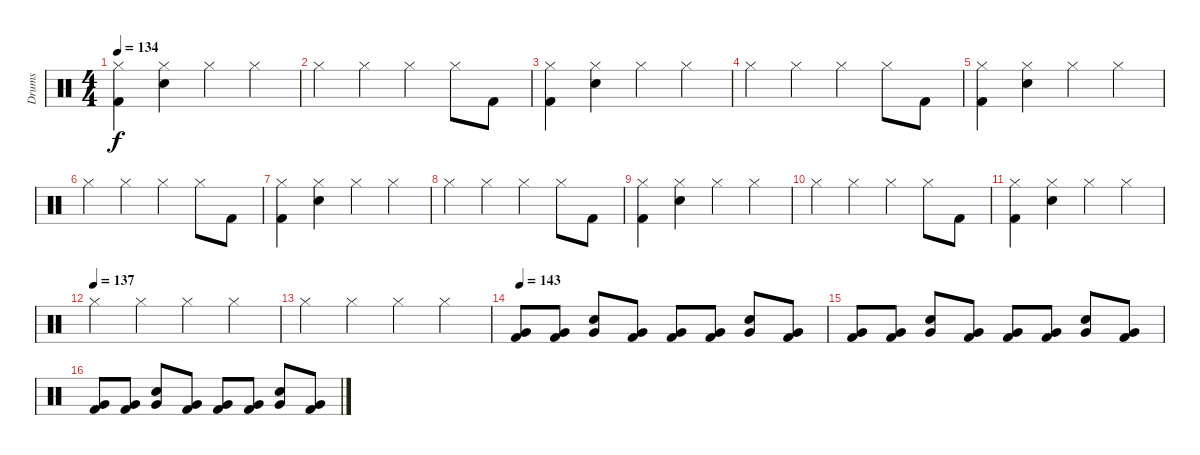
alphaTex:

\track ("Drums" "Drums") {instrument percussion}
\staff {score}
\articulation defaults
\ts (4 4)
\tempo 134
\clef neutral
\ks c
("Hi-Hat (closed)" "Kick (hit) 2").4{dy f} ("Hi-Hat (closed)" "Snare (hit) 2").4 "Hi-Hat (closed)".4 "Hi-Hat (closed)".4 |
"Hi-Hat (closed)".4 "Hi-Hat (closed)".4 "Hi-Hat (closed)".4 "Hi-Hat (closed)".8 "Kick (hit) 2".8 |
("Hi-Hat (closed)" "Kick (hit) 2").4 ("Hi-Hat (closed)" "Snare (hit) 2").4 "Hi-Hat (closed)".4 "Hi-Hat (closed)".4 |
"Hi-Hat (closed)".4 "Hi-Hat (closed)".4 "Hi-Hat (closed)".4 "Hi-Hat (closed)".8 "Kick (hit) 2".8 |
("Hi-Hat (closed)" "Kick (hit) 2").4 ("Hi-Hat (closed)" "Snare (hit) 2").4 "Hi-Hat (closed)".4 "Hi-Hat (closed)".4 |
"Hi-Hat (closed)".4 "Hi-Hat (closed)".4 "Hi-Hat (closed)".4 "Hi-Hat (closed)".8 "Kick (hit) 2".8 |
("Hi-Hat (closed)" "Kick (hit) 2").4 ("Hi-Hat (closed)" "Snare (hit) 2").4 "Hi-Hat (closed)".4 "Hi-Hat (closed)".4 |
"Hi-Hat (closed)".4 "Hi-Hat (closed)".4 "Hi-Hat (closed)".4 "Hi-Hat (closed)".8 "Kick (hit) 2".8 |
("Hi-Hat (closed)" "Kick (hit) 2").4 ("Hi-Hat (closed)" "Snare (hit) 2").4 "Hi-Hat (closed)".4 "Hi-Hat (closed)".4 |
"Hi-Hat (closed)".4 "Hi-Hat (closed)".4 "Hi-Hat (closed)".4 "Hi-Hat (closed)".8 "Kick (hit) 2".8 |
("Hi-Hat (closed)" "Kick (hit) 2").4 ("Hi-Hat (closed)" "Snare (hit) 2").4 "Hi-Hat (closed)".4 "Hi-Hat (closed)".4 |
\tempo (137)
"Hi-Hat (closed)".4 "Hi-Hat (closed)".4 "Hi-Hat (closed)".4 "Hi-Hat (closed)".4 |
"Hi-Hat (closed)".4 "Hi-Hat (closed)".4 "Hi-Hat (closed)".4 "Hi-Hat (closed)".4 |
\tempo 143
("Very Low Tom (hit)" "Kick (hit) 2").8 ("Very Low Tom (hit)" "Kick (hit) 2").8 ("Very Low Tom (hit)" "Snare (hit) 2").8 ("Very Low Tom (hit)" "Kick (hit) 2").8 ("Very Low Tom (hit)" "Kick (hit) 2").8 ("Very Low Tom (hit)" "Kick (hit) 2").8 ("Very Low Tom (hit)" "Snare (hit) 2").8 ("Very Low Tom (hit)" "Kick (hit) 2").8 |
("Very Low Tom (hit)" "Kick (hit) 2").8 ("Very Low Tom (hit)" "Kick (hit) 2").8 ("Very Low Tom (hit)" "Snare (hit) 2").8 ("Very Low Tom (hit)" "Kick (hit) 2").8 ("Very Low Tom (hit)" "Kick (hit) 2").8 ("Very Low Tom (hit)" "Kick (hit) 2").8 ("Very Low Tom (hit)" "Snare (hit) 2").8 ("Very Low Tom (hit)" "Kick (hit) 2").8 |
("Very Low Tom (hit)" "Kick (hit) 2").8 ("Very Low Tom (hit)" "Kick (hit) 2").8 ("Very Low Tom (hit)" "Snare (hit) 2").8 ("Very Low Tom (hit)" "Kick (hit) 2").8 ("Very Low Tom (hit)" "Kick (hit) 2").8 ("Very Low Tom (hit)" "Kick (hit) 2").8 ("Very Low Tom (hit)" "Snare (hit) 2").8 ("Very Low Tom (hit)" "Kick (hit) 2").8
